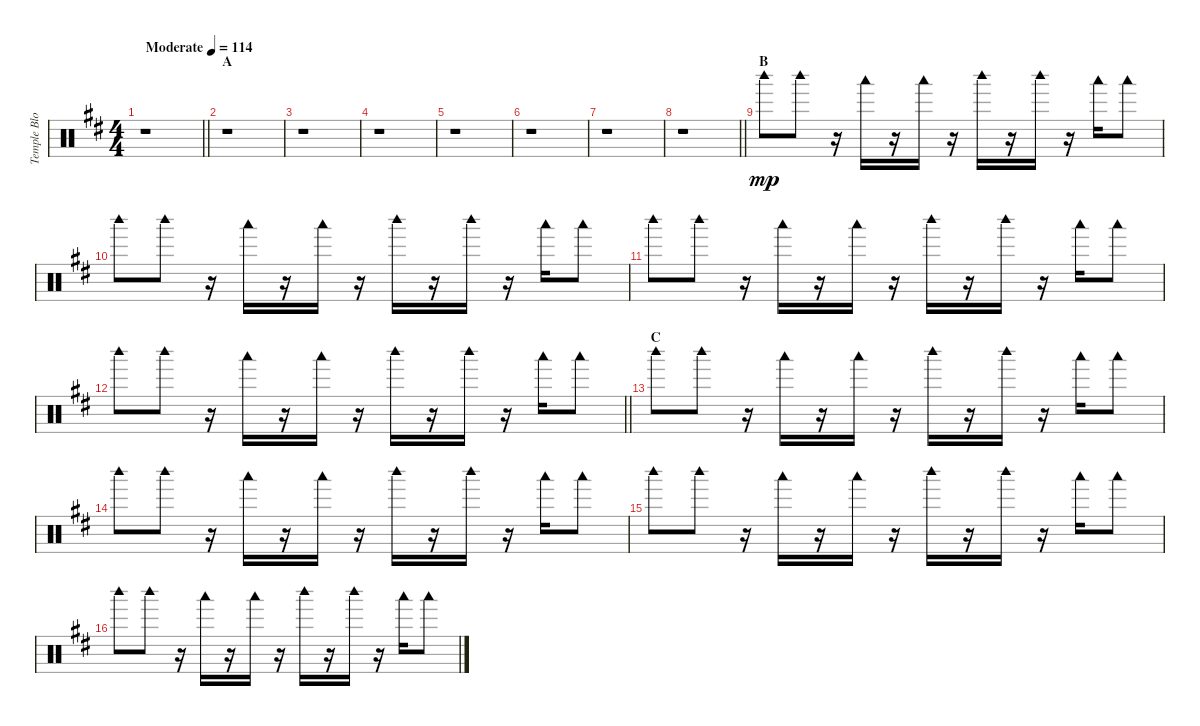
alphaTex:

\track ("Temple Block" "Temple Blo") {instrument percussion}
\staff {score}
\articulation defaults
\ts (4 4)
\tempo (114 "Moderate")
\clef neutral
\barLineRight lightlight
\ks d
r.1{dy mp} |
\section ("" "A")
r.1 |
r.1 |
r.1 |
r.1 |
r.1 |
r.1 |
\barLineRight lightlight
r.1 |
\section ("" "B")
"Woodblock high (hit)".8 "Woodblock high (hit)".8 r.16 "Woodblock low (hit)".16 r.16 "Woodblock low (hit)".16 r.16 "Woodblock high (hit)".16 r.16 "Woodblock high (hit)".16 r.16 "Woodblock low (hit)".16 "Woodblock low (hit)".8 |
"Woodblock high (hit)".8 "Woodblock high (hit)".8 r.16 "Woodblock low (hit)".16 r.16 "Woodblock low (hit)".16 r.16 "Woodblock high (hit)".16 r.16 "Woodblock high (hit)".16 r.16 "Woodblock low (hit)".16 "Woodblock low (hit)".8 |
"Woodblock high (hit)".8 "Woodblock high (hit)".8 r.16 "Woodblock low (hit)".16 r.16 "Woodblock low (hit)".16 r.16 "Woodblock high (hit)".16 r.16 "Woodblock high (hit)".16 r.16 "Woodblock low (hit)".16 "Woodblock low (hit)".8 |
\barLineRight lightlight "Woodblock high (hit)".8 "Woodblock high (hit)".8
r.16 "Woodblock low (hit)".16 r.16 "Woodblock low (hit)".16 r.16 "Woodblock high (hit)".16 r.16 "Woodblock high (hit)".16 r.16 "Woodblock low (hit)".16 "Woodblock low (hit)".8 |
\section ("" "C")
"Woodblock high (hit)".8 "Woodblock high (hit)".8 r.16 "Woodblock low (hit)".16 r.16 "Woodblock low (hit)".16 r.16 "Woodblock high (hit)".16 r.16 "Woodblock high (hit)".16 r.16 "Woodblock low (hit)".16 "Woodblock low (hit)".8 |
"Woodblock high (hit)".8 "Woodblock high (hit)".8 r.16 "Woodblock low (hit)".16 r.16 "Woodblock low (hit)".16 r.16 "Woodblock high (hit)".16 r.16 "Woodblock high (hit)".16 r.16 "Woodblock low (hit)".16 "Woodblock low (hit)".8 |
"Woodblock high (hit)".8 "Woodblock high (hit)".8 r.16 "Woodblock low (hit)".16 r.16 "Woodblock low (hit)".16 r.16 "Woodblock high (hit)".16 r.16 "Woodblock high (hit)".16 r.16 "Woodblock low (hit)".16 "Woodblock low (hit)".8 |
"Woodblock high (hit)".8 "Woodblock high (hit)".8 r.16 "Woodblock low (hit)".16 r.16 "Woodblock low (hit)".16 r.16 "Woodblock high (hit)".16 r.16 "Woodblock high (hit)".16 r.16 "Woodblock low (hit)".16 "Woodblock low (hit)".8
